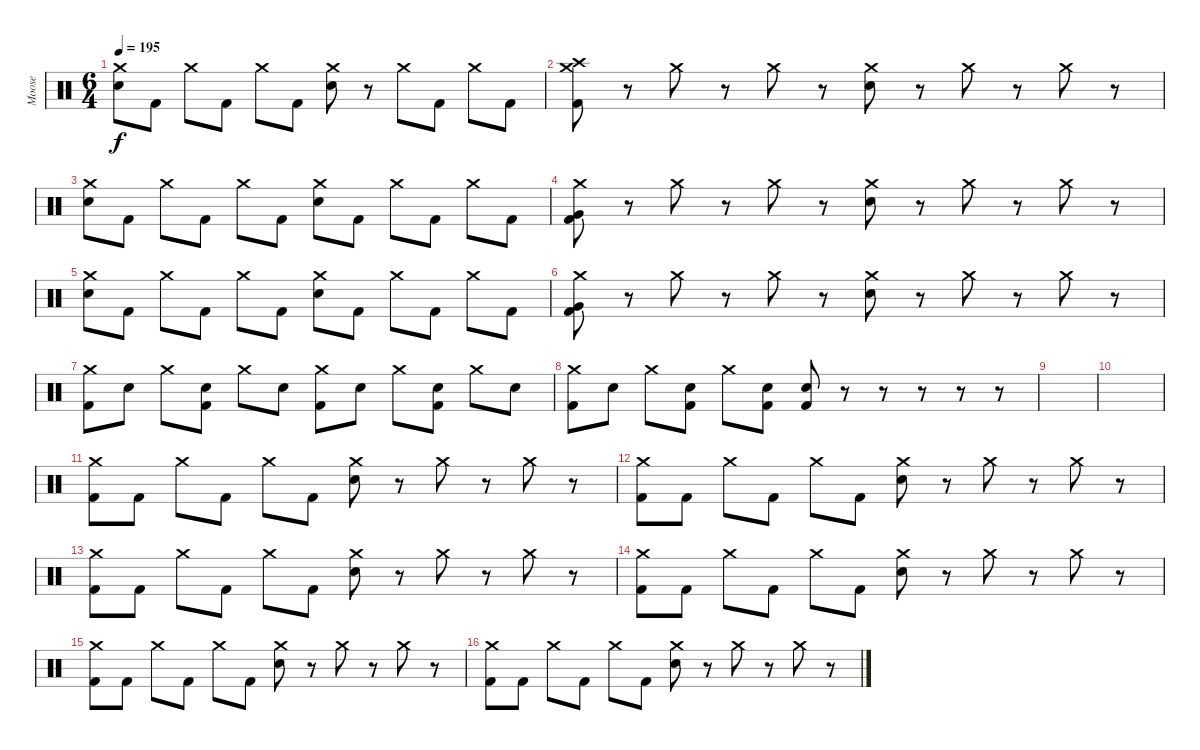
\track ("Moose" "Moose") {instrument percussion}
\staff {score}
\articulation defaults
\ts (6 4)
\tempo 195
\clef neutral
\ks c
("Crash medium (hit)" "Electric Snare (hit)").8{dy f} "Kick (hit) 2".8 "Crash medium (hit)".8 "Kick (hit) 2".8 "Crash medium (hit)".8 "Kick (hit) 2".8 ("Crash medium (hit)" "Electric Snare (hit)").8 r.8 "Crash medium (hit)".8 "Kick (hit) 2".8 "Crash medium (hit)".8 "Kick (hit) 2".8 |
("Crash medium (hit)" "Crash high (hit)" "Kick (hit) 2").8 r.8 "Crash medium (hit)".8 r.8 "Crash medium (hit)".8 r.8 ("Crash medium (hit)" "Electric Snare (hit)").8 r.8 "Crash medium (hit)".8 r.8 "Crash medium (hit)".8 r.8 |
("Crash medium (hit)" "Electric Snare (hit)").8 "Kick (hit) 2".8 "Crash medium (hit)".8 "Kick (hit) 2".8 "Crash medium (hit)".8 "Kick (hit) 2".8 ("Crash medium (hit)" "Electric Snare (hit)").8 "Kick (hit) 2".8 "Crash medium (hit)".8 "Kick (hit) 2".8 "Crash medium (hit)".8 "Kick (hit) 2".8 |
("Crash medium (hit)" "Very Low Tom (hit)" "Kick (hit) 2").8 r.8 "Crash medium (hit)".8 r.8 "Crash medium (hit)".8 r.8 ("Crash medium (hit)" "Electric Snare (hit)").8 r.8 "Crash medium (hit)".8 r.8 "Crash medium (hit)".8 r.8 |
("Crash medium (hit)" "Electric Snare (hit)").8 "Kick (hit) 2".8 "Crash medium (hit)".8 "Kick (hit) 2".8 "Crash medium (hit)".8 "Kick (hit) 2".8 ("Crash medium (hit)" "Electric Snare (hit)").8 "Kick (hit) 2".8 "Crash medium (hit)".8 "Kick (hit) 2".8 "Crash medium (hit)".8 "Kick (hit) 2".8 |
("Crash medium (hit)" "Very Low Tom (hit)" "Kick (hit) 2").8 r.8 "Crash medium (hit)".8 r.8 "Crash medium (hit)".8 r.8 ("Crash medium (hit)" "Electric Snare (hit)").8 r.8 "Crash medium (hit)".8 r.8 "Crash medium (hit)".8 r.8 |
("Crash medium (hit)" "Kick (hit) 2").8 "Electric Snare (hit)".8 "Crash medium (hit)".8 ("Electric Snare (hit)" "Kick (hit) 2").8 "Crash medium (hit)".8 "Electric Snare (hit)".8 ("Crash medium (hit)" "Kick (hit) 2").8 "Electric Snare (hit)".8 "Crash medium (hit)".8 ("Electric Snare (hit)" "Kick (hit) 2").8 "Crash medium (hit)".8 "Electric Snare (hit)".8 |
("Crash medium (hit)" "Kick (hit) 2").8 "Electric Snare (hit)".8 "Crash medium (hit)".8 ("Electric Snare (hit)" "Kick (hit) 2").8 "Crash medium (hit)".8 ("Electric Snare (hit)" "Kick (hit) 2").8 ("Electric Snare (hit)" "Kick (hit) 2").8 r.8 r.8 r.8 r.8 r.8 |
|
|
("Crash medium (hit)" "Kick (hit) 2").8 "Kick (hit) 2".8 "Crash medium (hit)".8 "Kick (hit) 2".8 "Crash medium (hit)".8 "Kick (hit) 2".8 ("Crash medium (hit)" "Electric Snare (hit)").8 r.8 "Crash medium (hit)".8 r.8 "Crash medium (hit)".8 r.8 |
("Crash medium (hit)" "Kick (hit) 2").8 "Kick (hit) 2".8 "Crash medium (hit)".8 "Kick (hit) 2".8 "Crash medium (hit)".8 "Kick (hit) 2".8 ("Crash medium (hit)" "Electric Snare (hit)").8 r.8 "Crash medium (hit)".8 r.8 "Crash medium (hit)".8 r.8 |
("Crash medium (hit)" "Kick (hit) 2").8 "Kick (hit) 2".8 "Crash medium (hit)".8 "Kick (hit) 2".8 "Crash medium (hit)".8 "Kick (hit) 2".8 ("Crash medium (hit)" "Electric Snare (hit)").8 r.8 "Crash medium (hit)".8 r.8 "Crash medium (hit)".8 r.8 |
("Crash medium (hit)" "Kick (hit) 2").8 "Kick (hit) 2".8 "Crash medium (hit)".8 "Kick (hit) 2".8 "Crash medium (hit)".8 "Kick (hit) 2".8 ("Crash medium (hit)" "Electric Snare (hit)").8 r.8 "Crash medium (hit)".8 r.8 "Crash medium (hit)".8 r.8 |
("Crash medium (hit)" "Kick (hit) 2").8 "Kick (hit) 2".8 "Crash medium (hit)".8 "Kick (hit) 2".8 "Crash medium (hit)".8 "Kick (hit) 2".8 ("Crash medium (hit)" "Electric Snare (hit)").8 r.8 "Crash medium (hit)".8 r.8 "Crash medium (hit)".8 r.8 |
("Crash medium (hit)" "Kick (hit) 2").8 "Kick (hit) 2".8 "Crash medium (hit)".8 "Kick (hit) 2".8 "Crash medium (hit)".8 "Kick (hit) 2".8 ("Crash medium (hit)" "Electric Snare (hit)").8 r.8 "Crash medium (hit)".8 r.8 "Crash medium (hit)".8 r.8
